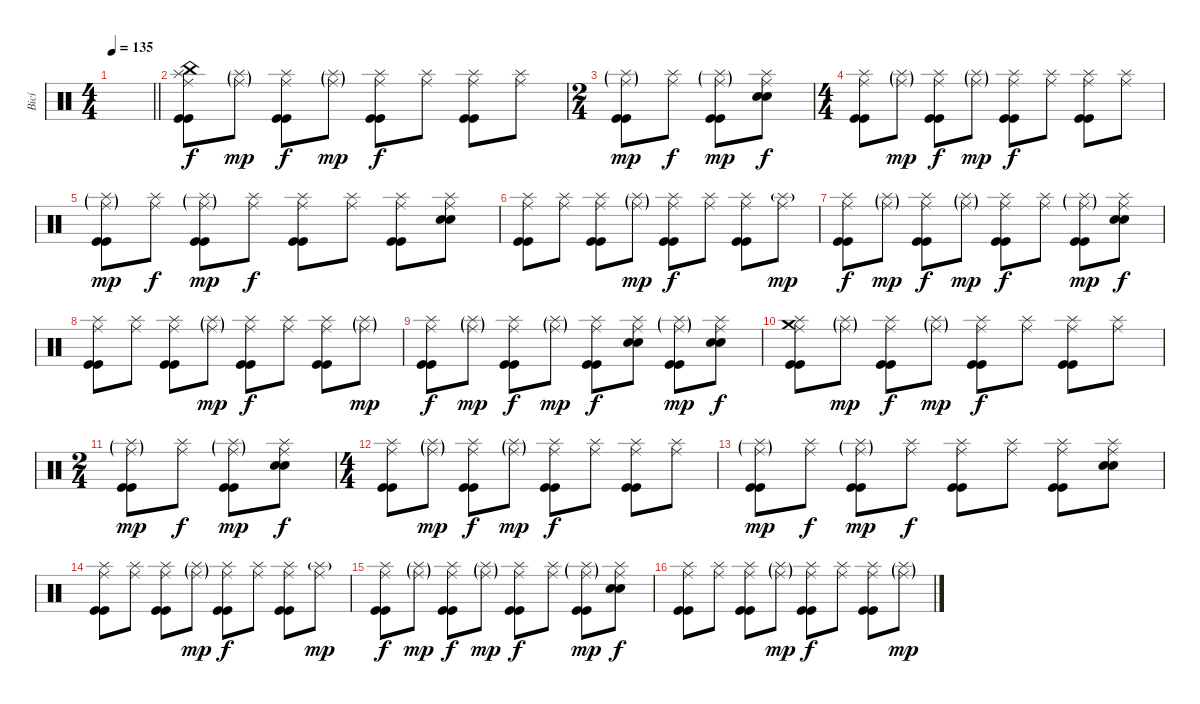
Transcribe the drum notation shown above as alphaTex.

\track ("Bicí" "Bicí") {instrument percussion}
\staff {score}
\articulation defaults
\ts (4 4)
\tempo 135
\clef neutral
\barLineRight lightlight
\ks c
|
\section ("" "")
("China (hit)" "Splash (hit)" "Ride (middle)" "Kick (hit)" "Kick (hit)").8 ("Splash (hit)"{g} "Ride (middle)"{g}).8{dy mp} ("Splash (hit)" "Ride (middle)" "Kick (hit)" "Kick (hit)").8{dy f} ("Splash (hit)"{g} "Ride (middle)"{g}).8{dy mp} ("Splash (hit)" "Ride (middle)" "Kick (hit)" "Kick (hit)").8{dy f} ("Splash (hit)" "Ride (middle)").8 ("Splash (hit)" "Ride (middle)" "Kick (hit)" "Kick (hit)").8 ("Splash (hit)" "Ride (middle)").8 |
\ts (2 4)
("Splash (hit)"{g} "Ride (middle)"{g} "Kick (hit)" "Kick (hit)").8{dy mp} ("Splash (hit)" "Ride (middle)").8{dy f} ("Splash (hit)"{g} "Ride (middle)"{g} "Kick (hit)" "Kick (hit)").8{dy mp} ("Splash (hit)" "Ride (middle)" "Electric Snare (hit)" "Electric Snare (hit)").8{dy f} |
\ts (4 4)
("Splash (hit)" "Ride (middle)" "Kick (hit)" "Kick (hit)").8 ("Splash (hit)"{g} "Ride (middle)"{g}).8{dy mp} ("Splash (hit)" "Ride (middle)" "Kick (hit)" "Kick (hit)").8{dy f} ("Splash (hit)"{g} "Ride (middle)"{g}).8{dy mp} ("Splash (hit)" "Ride (middle)" "Kick (hit)" "Kick (hit)").8{dy f} ("Splash (hit)" "Ride (middle)").8 ("Splash (hit)" "Ride (middle)" "Kick (hit)" "Kick (hit)").8 ("Splash (hit)" "Ride (middle)").8 |
("Splash (hit)"{g} "Ride (middle)"{g} "Kick (hit)" "Kick (hit)").8{dy mp} ("Splash (hit)" "Ride (middle)").8{dy f} ("Splash (hit)"{g} "Ride (middle)"{g} "Kick (hit)" "Kick (hit)").8{dy mp} ("Splash (hit)" "Ride (middle)").8{dy f} ("Splash (hit)" "Ride (middle)" "Kick (hit)" "Kick (hit)").8 ("Splash (hit)" "Ride (middle)").8 ("Splash (hit)" "Ride (middle)" "Kick (hit)" "Kick (hit)").8 ("Splash (hit)" "Ride (middle)" "Electric Snare (hit)" "Electric Snare (hit)").8 |
("Splash (hit)" "Ride (middle)" "Kick (hit)" "Kick (hit)").8 ("Splash (hit)" "Ride (middle)").8 ("Splash (hit)" "Ride (middle)" "Kick (hit)" "Kick (hit)").8 ("Splash (hit)"{g} "Ride (middle)"{g}).8{dy mp} ("Splash (hit)" "Ride (middle)" "Kick (hit)" "Kick (hit)").8{dy f} ("Splash (hit)" "Ride (middle)").8 ("Splash (hit)" "Ride (middle)" "Kick (hit)" "Kick (hit)").8 ("Splash (hit)"{g} "Ride (middle)").8{dy mp} |
("Splash (hit)" "Ride (middle)" "Kick (hit)" "Kick (hit)").8{dy f} ("Splash (hit)"{g} "Ride (middle)"{g}).8{dy mp} ("Splash (hit)" "Ride (middle)" "Kick (hit)" "Kick (hit)").8{dy f} ("Splash (hit)"{g} "Ride (middle)"{g}).8{dy mp} ("Splash (hit)" "Ride (middle)" "Kick (hit)" "Kick (hit)").8{dy f} ("Splash (hit)" "Ride (middle)").8 ("Splash (hit)"{g} "Ride (middle)"{g} "Kick (hit)" "Kick (hit)").8{dy mp} ("Splash (hit)" "Ride (middle)" "Electric Snare (hit)" "Electric Snare (hit)").8{dy f} |
("Splash (hit)" "Ride (middle)" "Kick (hit)" "Kick (hit)").8 ("Splash (hit)" "Ride (middle)").8 ("Splash (hit)" "Ride (middle)" "Kick (hit)" "Kick (hit)").8 ("Splash (hit)"{g} "Ride (middle)"{g}).8{dy mp} ("Splash (hit)" "Ride (middle)" "Kick (hit)" "Kick (hit)").8{dy f} ("Splash (hit)" "Ride (middle)").8 ("Splash (hit)" "Ride (middle)" "Kick (hit)" "Kick (hit)").8 ("Splash (hit)"{g} "Ride (middle)"{g}).8{dy mp} |
("Splash (hit)" "Ride (middle)" "Kick (hit)" "Kick (hit)").8{dy f} ("Splash (hit)"{g} "Ride (middle)"{g}).8{dy mp} ("Splash (hit)" "Ride (middle)" "Kick (hit)" "Kick (hit)").8{dy f} ("Splash (hit)"{g} "Ride (middle)"{g}).8{dy mp} ("Splash (hit)" "Ride (middle)" "Kick (hit)" "Kick (hit)").8{dy f} ("Splash (hit)" "Ride (middle)" "Electric Snare (hit)" "Electric Snare (hit)").8 ("Splash (hit)"{g} "Ride (middle)"{g} "Kick (hit)" "Kick (hit)").8{dy mp} ("Splash (hit)" "Ride (middle)" "Electric Snare (hit)" "Electric Snare (hit)").8{dy f} |
("Crash medium (hit)" "Splash (hit)" "Ride (middle)" "Kick (hit)" "Kick (hit)").8 ("Splash (hit)"{g} "Ride (middle)"{g}).8{dy mp} ("Splash (hit)" "Ride (middle)" "Kick (hit)" "Kick (hit)").8{dy f} ("Splash (hit)"{g} "Ride (middle)"{g}).8{dy mp} ("Splash (hit)" "Ride (middle)" "Kick (hit)" "Kick (hit)").8{dy f} ("Splash (hit)" "Ride (middle)").8 ("Splash (hit)" "Ride (middle)" "Kick (hit)" "Kick (hit)").8 ("Splash (hit)" "Ride (middle)").8 |
\ts (2 4)
("Splash (hit)"{g} "Ride (middle)"{g} "Kick (hit)" "Kick (hit)").8{dy mp} ("Splash (hit)" "Ride (middle)").8{dy f} ("Splash (hit)"{g} "Ride (middle)"{g} "Kick (hit)" "Kick (hit)").8{dy mp} ("Splash (hit)" "Ride (middle)" "Electric Snare (hit)" "Electric Snare (hit)").8{dy f} |
\ts (4 4)
("Splash (hit)" "Ride (middle)" "Kick (hit)" "Kick (hit)").8 ("Splash (hit)"{g} "Ride (middle)"{g}).8{dy mp} ("Splash (hit)" "Ride (middle)" "Kick (hit)" "Kick (hit)").8{dy f} ("Splash (hit)"{g} "Ride (middle)"{g}).8{dy mp} ("Splash (hit)" "Ride (middle)" "Kick (hit)" "Kick (hit)").8{dy f} ("Splash (hit)" "Ride (middle)").8 ("Splash (hit)" "Ride (middle)" "Kick (hit)" "Kick (hit)").8 ("Splash (hit)" "Ride (middle)").8 |
("Splash (hit)"{g} "Ride (middle)"{g} "Kick (hit)" "Kick (hit)").8{dy mp} ("Splash (hit)" "Ride (middle)").8{dy f} ("Splash (hit)"{g} "Ride (middle)"{g} "Kick (hit)" "Kick (hit)").8{dy mp} ("Splash (hit)" "Ride (middle)").8{dy f} ("Splash (hit)" "Ride (middle)" "Kick (hit)" "Kick (hit)").8 ("Splash (hit)" "Ride (middle)").8 ("Splash (hit)" "Ride (middle)" "Kick (hit)" "Kick (hit)").8 ("Splash (hit)" "Ride (middle)" "Electric Snare (hit)" "Electric Snare (hit)").8 |
("Splash (hit)" "Ride (middle)" "Kick (hit)" "Kick (hit)").8 ("Splash (hit)" "Ride (middle)").8 ("Splash (hit)" "Ride (middle)" "Kick (hit)" "Kick (hit)").8 ("Splash (hit)"{g} "Ride (middle)"{g}).8{dy mp} ("Splash (hit)" "Ride (middle)" "Kick (hit)" "Kick (hit)").8{dy f} ("Splash (hit)" "Ride (middle)").8 ("Splash (hit)" "Ride (middle)" "Kick (hit)" "Kick (hit)").8 ("Splash (hit)"{g} "Ride (middle)").8{dy mp} |
("Splash (hit)" "Ride (middle)" "Kick (hit)" "Kick (hit)").8{dy f} ("Splash (hit)"{g} "Ride (middle)"{g}).8{dy mp} ("Splash (hit)" "Ride (middle)" "Kick (hit)" "Kick (hit)").8{dy f} ("Splash (hit)"{g} "Ride (middle)"{g}).8{dy mp} ("Splash (hit)" "Ride (middle)" "Kick (hit)" "Kick (hit)").8{dy f} ("Splash (hit)" "Ride (middle)").8 ("Splash (hit)"{g} "Ride (middle)"{g} "Kick (hit)" "Kick (hit)").8{dy mp} ("Splash (hit)" "Ride (middle)" "Electric Snare (hit)" "Electric Snare (hit)").8{dy f} |
("Splash (hit)" "Ride (middle)" "Kick (hit)" "Kick (hit)").8 ("Splash (hit)" "Ride (middle)").8 ("Splash (hit)" "Ride (middle)" "Kick (hit)" "Kick (hit)").8 ("Splash (hit)"{g} "Ride (middle)"{g}).8{dy mp} ("Splash (hit)" "Ride (middle)" "Kick (hit)" "Kick (hit)").8{dy f} ("Splash (hit)" "Ride (middle)").8 ("Splash (hit)" "Ride (middle)" "Kick (hit)" "Kick (hit)").8 ("Splash (hit)"{g} "Ride (middle)"{g}).8{dy mp}
